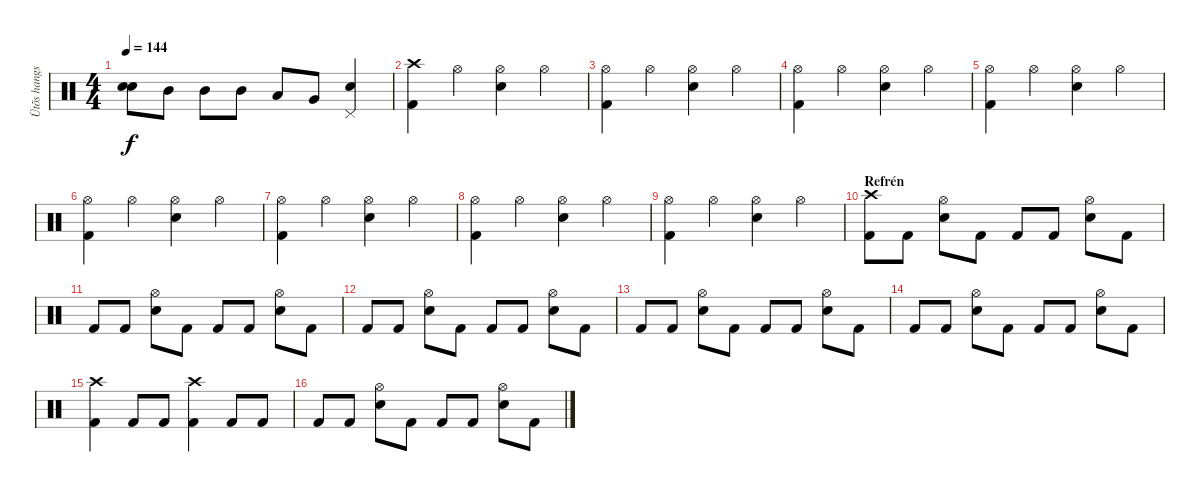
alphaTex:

\track ("Ütõs hangszer" "Ütõs hangs") {instrument percussion}
\staff {score}
\articulation defaults
\ts (4 4)
\tempo 144
\clef neutral
\ks c
("Snare (hit) 2" "Electric Snare (hit)").8{dy f} "Mid Tom (hit)".8 "Mid Tom (hit)".8 "Mid Tom (hit)".8 "Low Tom (hit)".8 "Very Low Tom (hit)".8 ("Pedal Hi-Hat (hit)" "Electric Snare (hit)").4 |
("Crash high (hit)" "Kick (hit) 2").4 "Hi-Hat (open)".4 ("Hi-Hat (open)" "Electric Snare (hit)").4 "Hi-Hat (open)".4 |
("Hi-Hat (open)" "Kick (hit) 2").4 "Hi-Hat (open)".4 ("Hi-Hat (open)" "Electric Snare (hit)").4 "Hi-Hat (open)".4 |
("Hi-Hat (open)" "Kick (hit) 2").4 "Hi-Hat (open)".4 ("Hi-Hat (open)" "Electric Snare (hit)").4 "Hi-Hat (open)".4 |
("Hi-Hat (open)" "Kick (hit) 2").4 "Hi-Hat (open)".4 ("Hi-Hat (open)" "Electric Snare (hit)").4 "Hi-Hat (open)".4 |
("Hi-Hat (open)" "Kick (hit) 2").4 "Hi-Hat (open)".4 ("Hi-Hat (open)" "Electric Snare (hit)").4 "Hi-Hat (open)".4 |
("Hi-Hat (open)" "Kick (hit) 2").4 "Hi-Hat (open)".4 ("Hi-Hat (open)" "Electric Snare (hit)").4 "Hi-Hat (open)".4 |
("Hi-Hat (open)" "Kick (hit) 2").4 "Hi-Hat (open)".4 ("Hi-Hat (open)" "Electric Snare (hit)").4 "Hi-Hat (open)".4 |
("Hi-Hat (open)" "Kick (hit) 2").4 "Hi-Hat (open)".4 ("Hi-Hat (open)" "Electric Snare (hit)").4 "Hi-Hat (open)".4 |
\section ("" "Refrén")
("Crash high (hit)" "Kick (hit) 2").8 "Kick (hit) 2".8 ("Hi-Hat (open)" "Electric Snare (hit)").8 "Kick (hit) 2".8 "Kick (hit) 2".8 "Kick (hit) 2".8 ("Hi-Hat (open)" "Electric Snare (hit)").8 "Kick (hit) 2".8 |
"Kick (hit) 2".8 "Kick (hit) 2".8 ("Hi-Hat (open)" "Electric Snare (hit)").8 "Kick (hit) 2".8 "Kick (hit) 2".8 "Kick (hit) 2".8 ("Hi-Hat (open)" "Electric Snare (hit)").8 "Kick (hit) 2".8 |
"Kick (hit) 2".8 "Kick (hit) 2".8 ("Hi-Hat (open)" "Electric Snare (hit)").8 "Kick (hit) 2".8 "Kick (hit) 2".8 "Kick (hit) 2".8 ("Hi-Hat (open)" "Electric Snare (hit)").8 "Kick (hit) 2".8 |
"Kick (hit) 2".8 "Kick (hit) 2".8 ("Hi-Hat (open)" "Electric Snare (hit)").8 "Kick (hit) 2".8 "Kick (hit) 2".8 "Kick (hit) 2".8 ("Hi-Hat (open)" "Electric Snare (hit)").8 "Kick (hit) 2".8 |
"Kick (hit) 2".8 "Kick (hit) 2".8 ("Hi-Hat (open)" "Electric Snare (hit)").8 "Kick (hit) 2".8 "Kick (hit) 2".8 "Kick (hit) 2".8 ("Hi-Hat (open)" "Electric Snare (hit)").8 "Kick (hit) 2".8 |
("Crash high (hit)" "Kick (hit) 2").4 "Kick (hit) 2".8 "Kick (hit) 2".8 ("Crash high (hit)" "Kick (hit) 2").4 "Kick (hit) 2".8 "Kick (hit) 2".8 |
"Kick (hit) 2".8 "Kick (hit) 2".8 ("Hi-Hat (open)" "Electric Snare (hit)").8 "Kick (hit) 2".8 "Kick (hit) 2".8 "Kick (hit) 2".8 ("Hi-Hat (open)" "Electric Snare (hit)").8 "Kick (hit) 2".8
